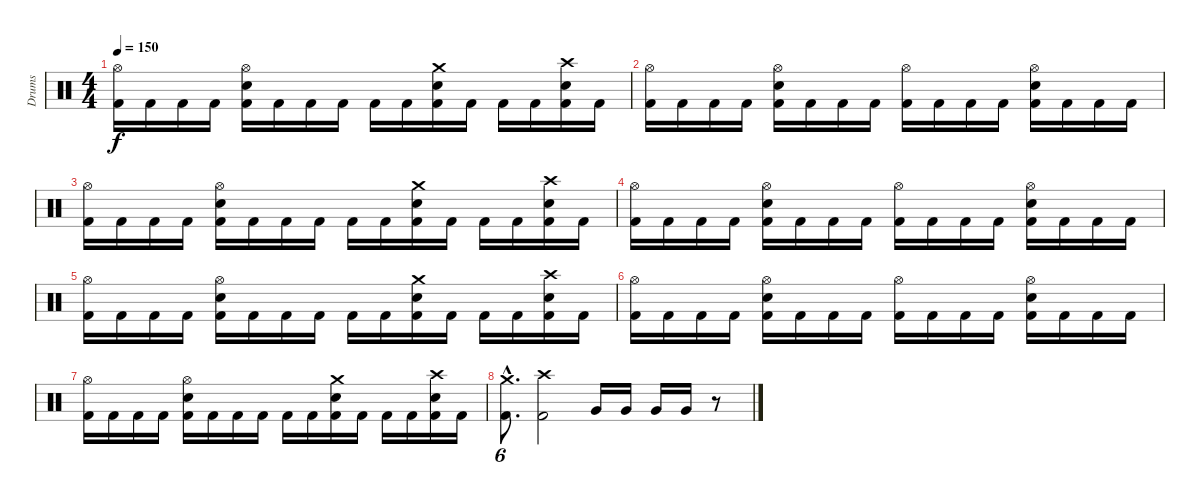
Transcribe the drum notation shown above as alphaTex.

\track ("Drums" "Drums") {instrument percussion}
\staff {score}
\articulation defaults
\ts (4 4)
\tempo 150
\clef neutral
\ks c
("Hi-Hat (open)" "Kick (hit) 2").16{dy f} "Kick (hit) 2".16 "Kick (hit) 2".16 "Kick (hit) 2".16 ("Hi-Hat (open)" "Snare (hit) 2" "Kick (hit) 2").16 "Kick (hit) 2".16 "Kick (hit) 2".16 "Kick (hit) 2".16 "Kick (hit) 2".16 "Kick (hit) 2".16 ("Crash medium (hit)" "Snare (hit) 2" "Kick (hit) 2").16 "Kick (hit) 2".16 "Kick (hit) 2".16 "Kick (hit) 2".16 ("Crash high (hit)" "Snare (hit) 2" "Kick (hit) 2").16 "Kick (hit) 2".16 |
("Hi-Hat (open)" "Kick (hit) 2").16 "Kick (hit) 2".16 "Kick (hit) 2".16 "Kick (hit) 2".16 ("Hi-Hat (open)" "Snare (hit) 2" "Kick (hit) 2").16 "Kick (hit) 2".16 "Kick (hit) 2".16 "Kick (hit) 2".16 ("Hi-Hat (open)" "Kick (hit) 2").16 "Kick (hit) 2".16 "Kick (hit) 2".16 "Kick (hit) 2".16 ("Hi-Hat (open)" "Snare (hit) 2" "Kick (hit) 2").16 "Kick (hit) 2".16 "Kick (hit) 2".16 "Kick (hit) 2".16 |
("Hi-Hat (open)" "Kick (hit) 2").16 "Kick (hit) 2".16 "Kick (hit) 2".16 "Kick (hit) 2".16 ("Hi-Hat (open)" "Snare (hit) 2" "Kick (hit) 2").16 "Kick (hit) 2".16 "Kick (hit) 2".16 "Kick (hit) 2".16 "Kick (hit) 2".16 "Kick (hit) 2".16 ("Crash medium (hit)" "Snare (hit) 2" "Kick (hit) 2").16 "Kick (hit) 2".16 "Kick (hit) 2".16 "Kick (hit) 2".16 ("Crash high (hit)" "Snare (hit) 2" "Kick (hit) 2").16 "Kick (hit) 2".16 |
("Hi-Hat (open)" "Kick (hit) 2").16 "Kick (hit) 2".16 "Kick (hit) 2".16 "Kick (hit) 2".16 ("Hi-Hat (open)" "Snare (hit) 2" "Kick (hit) 2").16 "Kick (hit) 2".16 "Kick (hit) 2".16 "Kick (hit) 2".16 ("Hi-Hat (open)" "Kick (hit) 2").16 "Kick (hit) 2".16 "Kick (hit) 2".16 "Kick (hit) 2".16 ("Hi-Hat (open)" "Snare (hit) 2" "Kick (hit) 2").16 "Kick (hit) 2".16 "Kick (hit) 2".16 "Kick (hit) 2".16 |
("Hi-Hat (open)" "Kick (hit) 2").16 "Kick (hit) 2".16 "Kick (hit) 2".16 "Kick (hit) 2".16 ("Hi-Hat (open)" "Snare (hit) 2" "Kick (hit) 2").16 "Kick (hit) 2".16 "Kick (hit) 2".16 "Kick (hit) 2".16 "Kick (hit) 2".16 "Kick (hit) 2".16 ("Crash medium (hit)" "Snare (hit) 2" "Kick (hit) 2").16 "Kick (hit) 2".16 "Kick (hit) 2".16 "Kick (hit) 2".16 ("Crash high (hit)" "Snare (hit) 2" "Kick (hit) 2").16 "Kick (hit) 2".16 |
("Hi-Hat (open)" "Kick (hit) 2").16 "Kick (hit) 2".16 "Kick (hit) 2".16 "Kick (hit) 2".16 ("Hi-Hat (open)" "Snare (hit) 2" "Kick (hit) 2").16 "Kick (hit) 2".16 "Kick (hit) 2".16 "Kick (hit) 2".16 ("Hi-Hat (open)" "Kick (hit) 2").16 "Kick (hit) 2".16 "Kick (hit) 2".16 "Kick (hit) 2".16 ("Hi-Hat (open)" "Snare (hit) 2" "Kick (hit) 2").16 "Kick (hit) 2".16 "Kick (hit) 2".16 "Kick (hit) 2".16 |
("Hi-Hat (open)" "Kick (hit) 2").16 "Kick (hit) 2".16 "Kick (hit) 2".16 "Kick (hit) 2".16 ("Hi-Hat (open)" "Snare (hit) 2" "Kick (hit) 2").16 "Kick (hit) 2".16 "Kick (hit) 2".16 "Kick (hit) 2".16 "Kick (hit) 2".16 "Kick (hit) 2".16 ("Crash medium (hit)" "Snare (hit) 2" "Kick (hit) 2").16 "Kick (hit) 2".16 "Kick (hit) 2".16 "Kick (hit) 2".16 ("Crash high (hit)" "Snare (hit) 2" "Kick (hit) 2").16 "Kick (hit) 2".16 |
("Crash medium (hit)"{hac} "Kick (hit) 2"{hac}).8{d tu (6 4)} ("Crash high (hit)" "Kick (hit) 2").2 "Very Low Tom (hit)".16 "Very Low Tom (hit)".16 "Very Low Tom (hit)".16 "Very Low Tom (hit)".16 r.8
